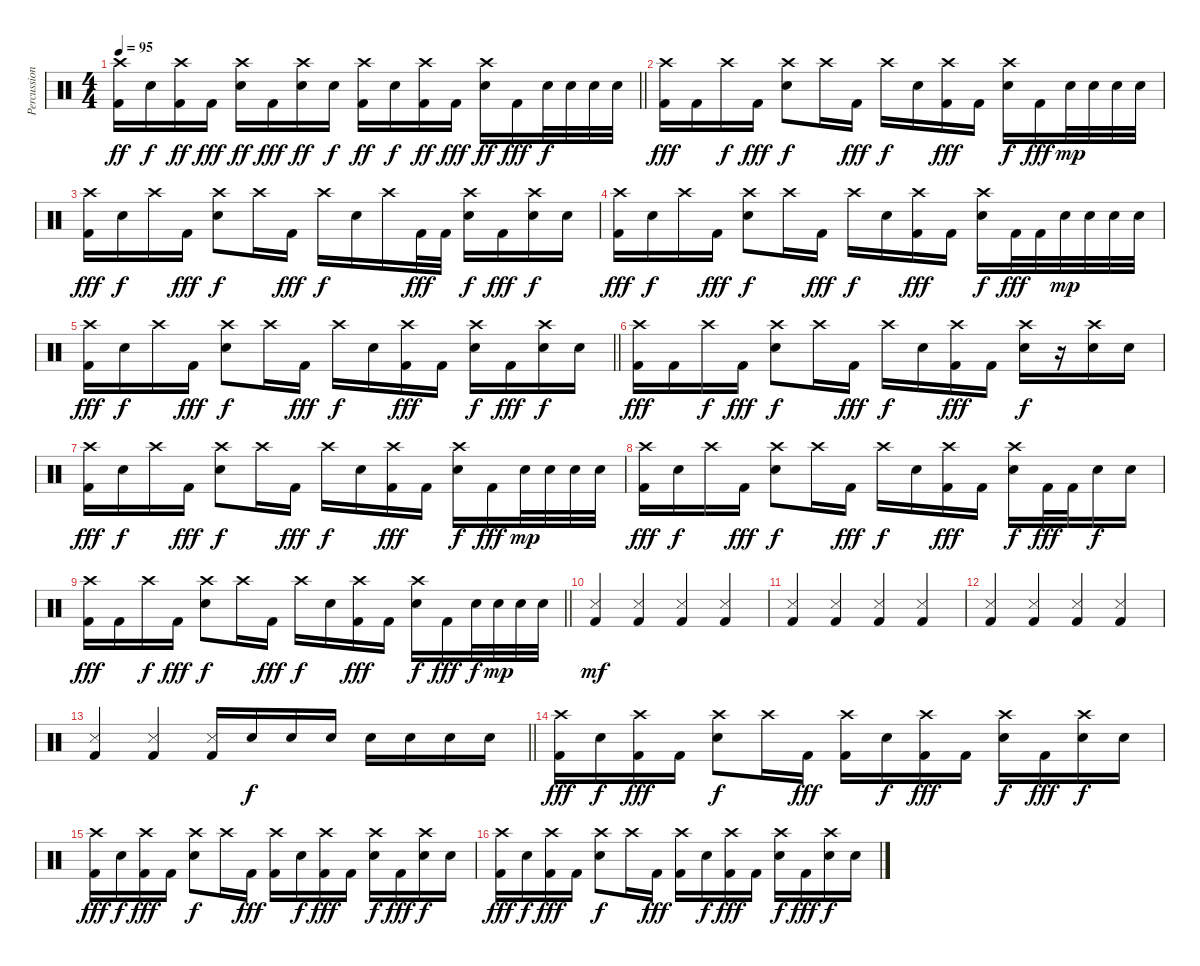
\track ("Percussions" "Percussion") {instrument percussion}
\staff {score}
\articulation defaults
\ts (4 4)
\tempo 95
\clef neutral
\barLineRight lightlight
\ks c
("Kick (hit) 2" "Crash high (hit)").16{dy ff} "Electric Snare (hit)".16{dy f} ("Kick (hit) 2" "Crash high (hit)").16{dy ff} "Kick (hit) 2".16{dy fff} ("Electric Snare (hit)" "Crash high (hit)").16{dy ff} "Kick (hit) 2".16{dy fff} ("Electric Snare (hit)" "Crash high (hit)").16{dy ff} "Electric Snare (hit)".16{dy f} ("Kick (hit) 2" "Crash high (hit)").16{dy ff} "Electric Snare (hit)".16{dy f} ("Kick (hit) 2" "Crash high (hit)").16{dy ff} "Kick (hit) 2".16{dy fff} ("Electric Snare (hit)" "Crash high (hit)").16{dy ff} "Kick (hit) 2".16{dy fff} "Electric Snare (hit)".32{dy f} "Electric Snare (hit)".32 "Electric Snare (hit)".32 "Electric Snare (hit)".32 |
("Kick (hit) 2" "Crash high (hit)").16{dy fff} "Kick (hit) 2".16 "Crash high (hit)".16{dy f} "Kick (hit) 2".16{dy fff} ("Electric Snare (hit)" "Crash high (hit)").8{dy f} "Crash high (hit)".16 "Kick (hit) 2".16{dy fff} "Crash high (hit)".16{dy f} "Electric Snare (hit)".16 ("Kick (hit) 2" "Crash high (hit)").16{dy fff} "Kick (hit) 2".16 ("Electric Snare (hit)" "Crash high (hit)").16{dy f} "Kick (hit) 2".16{dy fff} "Electric Snare (hit)".32{dy mp} "Electric Snare (hit)".32 "Electric Snare (hit)".32 "Electric Snare (hit)".32 |
("Kick (hit) 2" "Crash high (hit)").16{dy fff} "Electric Snare (hit)".16{dy f} "Crash high (hit)".16 "Kick (hit) 2".16{dy fff} ("Electric Snare (hit)" "Crash high (hit)").8{dy f} "Crash high (hit)".16 "Kick (hit) 2".16{dy fff} "Crash high (hit)".16{dy f} "Electric Snare (hit)".16 "Crash high (hit)".16 "Kick (hit) 2".32{dy fff} "Kick (hit) 2".32 ("Electric Snare (hit)" "Crash high (hit)").16{dy f} "Kick (hit) 2".16{dy fff} ("Crash high (hit)" "Electric Snare (hit)").16{dy f} "Electric Snare (hit)".16 |
("Kick (hit) 2" "Crash high (hit)").16{dy fff} "Electric Snare (hit)".16{dy f} "Crash high (hit)".16 "Kick (hit) 2".16{dy fff} ("Electric Snare (hit)" "Crash high (hit)").8{dy f} "Crash high (hit)".16 "Kick (hit) 2".16{dy fff} "Crash high (hit)".16{dy f} "Electric Snare (hit)".16 ("Kick (hit) 2" "Crash high (hit)").16{dy fff} "Kick (hit) 2".16 ("Electric Snare (hit)" "Crash high (hit)").16{dy f} "Kick (hit) 2".32{dy fff} "Kick (hit) 2".32 "Electric Snare (hit)".32{dy mp} "Electric Snare (hit)".32 "Electric Snare (hit)".32 "Electric Snare (hit)".32 |
\barLineRight lightlight
("Kick (hit) 2" "Crash high (hit)").16{dy fff} "Electric Snare (hit)".16{dy f} "Crash high (hit)".16 "Kick (hit) 2".16{dy fff} ("Electric Snare (hit)" "Crash high (hit)").8{dy f} "Crash high (hit)".16 "Kick (hit) 2".16{dy fff} "Crash high (hit)".16{dy f} "Electric Snare (hit)".16 ("Kick (hit) 2" "Crash high (hit)").16{dy fff} "Kick (hit) 2".16 ("Electric Snare (hit)" "Crash high (hit)").16{dy f} "Kick (hit) 2".16{dy fff} ("Crash high (hit)" "Electric Snare (hit)").16{dy f} "Electric Snare (hit)".16 |
("Kick (hit) 2" "Crash high (hit)").16{dy fff} "Kick (hit) 2".16 "Crash high (hit)".16{dy f} "Kick (hit) 2".16{dy fff} ("Electric Snare (hit)" "Crash high (hit)").8{dy f} "Crash high (hit)".16 "Kick (hit) 2".16{dy fff} "Crash high (hit)".16{dy f} "Electric Snare (hit)".16 ("Kick (hit) 2" "Crash high (hit)").16{dy fff} "Kick (hit) 2".16 ("Electric Snare (hit)" "Crash high (hit)").16{dy f} r.16 ("Crash high (hit)" "Electric Snare (hit)").16 "Electric Snare (hit)".16 |
("Kick (hit) 2" "Crash high (hit)").16{dy fff} "Electric Snare (hit)".16{dy f} "Crash high (hit)".16 "Kick (hit) 2".16{dy fff} ("Electric Snare (hit)" "Crash high (hit)").8{dy f} "Crash high (hit)".16 "Kick (hit) 2".16{dy fff} "Crash high (hit)".16{dy f} "Electric Snare (hit)".16 ("Kick (hit) 2" "Crash high (hit)").16{dy fff} "Kick (hit) 2".16 ("Electric Snare (hit)" "Crash high (hit)").16{dy f} "Kick (hit) 2".16{dy fff} "Electric Snare (hit)".32{dy mp} "Electric Snare (hit)".32 "Electric Snare (hit)".32 "Electric Snare (hit)".32 |
("Kick (hit) 2" "Crash high (hit)").16{dy fff} "Electric Snare (hit)".16{dy f} "Crash high (hit)".16 "Kick (hit) 2".16{dy fff} ("Electric Snare (hit)" "Crash high (hit)").8{dy f} "Crash high (hit)".16 "Kick (hit) 2".16{dy fff} "Crash high (hit)".16{dy f} "Electric Snare (hit)".16 ("Kick (hit) 2" "Crash high (hit)").16{dy fff} "Kick (hit) 2".16 ("Electric Snare (hit)" "Crash high (hit)").16{dy f} "Kick (hit) 2".32{dy fff} "Kick (hit) 2".32 "Electric Snare (hit)".16{dy f} "Electric Snare (hit)".16 |
\barLineRight lightlight
("Kick (hit) 2" "Crash high (hit)").16{dy fff} "Kick (hit) 2".16 "Crash high (hit)".16{dy f} "Kick (hit) 2".16{dy fff} ("Electric Snare (hit)" "Crash high (hit)").8{dy f} "Crash high (hit)".16 "Kick (hit) 2".16{dy fff} "Crash high (hit)".16{dy f} "Electric Snare (hit)".16 ("Kick (hit) 2" "Crash high (hit)").16{dy fff} "Kick (hit) 2".16 ("Electric Snare (hit)" "Crash high (hit)").16{dy f} "Kick (hit) 2".16{dy fff} "Electric Snare (hit)".32{dy f} "Electric Snare (hit)".32{dy mp} "Electric Snare (hit)".32 "Electric Snare (hit)".32 |
("Kick (hit) 2" "Snare (side stick) 3").4{dy mf} ("Kick (hit) 2" "Snare (side stick) 3").4 ("Kick (hit) 2" "Snare (side stick) 3").4 ("Kick (hit) 2" "Snare (side stick) 3").4 |
("Kick (hit) 2" "Snare (side stick) 3").4 ("Kick (hit) 2" "Snare (side stick) 3").4 ("Kick (hit) 2" "Snare (side stick) 3").4 ("Kick (hit) 2" "Snare (side stick) 3").4 |
("Kick (hit) 2" "Snare (side stick) 3").4 ("Kick (hit) 2" "Snare (side stick) 3").4 ("Kick (hit) 2" "Snare (side stick) 3").4 ("Kick (hit) 2" "Snare (side stick) 3").4 |
\barLineRight lightlight
("Kick (hit) 2" "Snare (side stick) 3").4 ("Kick (hit) 2" "Snare (side stick) 3").4 ("Kick (hit) 2" "Snare (side stick) 3").16 "Electric Snare (hit)".16{dy f} "Electric Snare (hit)".16 "Electric Snare (hit)".16 "Electric Snare (hit)".16 "Electric Snare (hit)".16 "Electric Snare (hit)".16 "Electric Snare (hit)".16 |
("Kick (hit) 2" "Crash high (hit)").16{dy fff} "Electric Snare (hit)".16{dy f} ("Kick (hit) 2" "Crash high (hit)").16{dy fff} "Kick (hit) 2".16 ("Electric Snare (hit)" "Crash high (hit)").8{dy f} "Crash high (hit)".16 "Kick (hit) 2".16{dy fff} ("Kick (hit) 2" "Crash high (hit)").16 "Electric Snare (hit)".16{dy f} ("Kick (hit) 2" "Crash high (hit)").16{dy fff} "Kick (hit) 2".16 ("Electric Snare (hit)" "Crash high (hit)").16{dy f} "Kick (hit) 2".16{dy fff} ("Electric Snare (hit)" "Crash high (hit)").16{dy f} "Electric Snare (hit)".16 |
("Kick (hit) 2" "Crash high (hit)").16{dy fff} "Electric Snare (hit)".16{dy f} ("Kick (hit) 2" "Crash high (hit)").16{dy fff} "Kick (hit) 2".16 ("Electric Snare (hit)" "Crash high (hit)").8{dy f} "Crash high (hit)".16 "Kick (hit) 2".16{dy fff} ("Kick (hit) 2" "Crash high (hit)").16 "Electric Snare (hit)".16{dy f} ("Kick (hit) 2" "Crash high (hit)").16{dy fff} "Kick (hit) 2".16 ("Electric Snare (hit)" "Crash high (hit)").16{dy f} "Kick (hit) 2".16{dy fff} ("Electric Snare (hit)" "Crash high (hit)").16{dy f} "Electric Snare (hit)".16 |
("Kick (hit) 2" "Crash high (hit)").16{dy fff} "Electric Snare (hit)".16{dy f} ("Kick (hit) 2" "Crash high (hit)").16{dy fff} "Kick (hit) 2".16 ("Electric Snare (hit)" "Crash high (hit)").8{dy f} "Crash high (hit)".16 "Kick (hit) 2".16{dy fff} ("Kick (hit) 2" "Crash high (hit)").16 "Electric Snare (hit)".16{dy f} ("Kick (hit) 2" "Crash high (hit)").16{dy fff} "Kick (hit) 2".16 ("Electric Snare (hit)" "Crash high (hit)").16{dy f} "Kick (hit) 2".16{dy fff} ("Electric Snare (hit)" "Crash high (hit)").16{dy f} "Electric Snare (hit)".16
